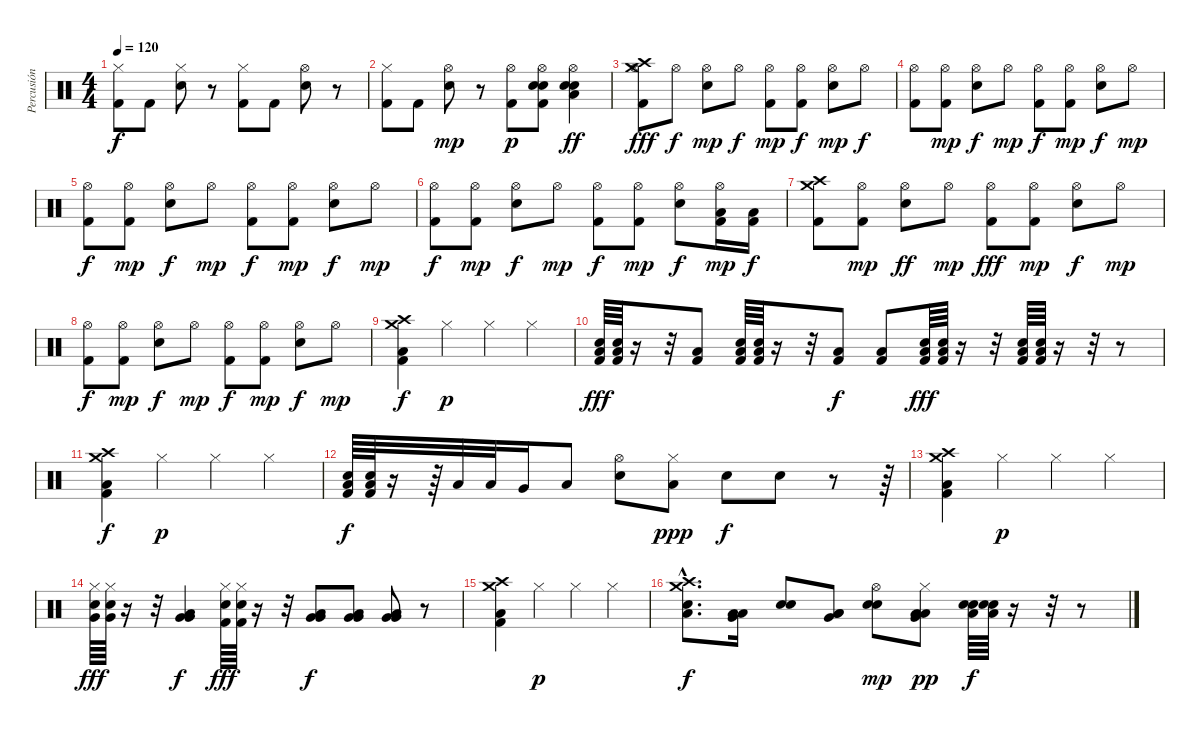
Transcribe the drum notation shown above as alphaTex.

\track ("Percusión" "Percusión") {instrument percussion}
\staff {score}
\articulation defaults
\ts (4 4)
\tempo 120
\clef neutral
\ks c
("Hi-Hat (closed)" "Kick (hit) 2").8{dy f} "Kick (hit) 2".8 ("Electric Snare (hit)" "Hi-Hat (closed)").8 r.8 ("Hi-Hat (closed)" "Kick (hit) 2").8 "Kick (hit) 2".8 ("Electric Snare (hit)" "Hi-Hat (open)").8 r.8 |
("Hi-Hat (closed)" "Kick (hit) 2").8 "Kick (hit) 2".8 ("Electric Snare (hit)" "Hi-Hat (open)").8{dy mp} r.8 ("Hi-Hat (open)" "Kick (hit) 2").8{dy p} ("Electric Snare (hit)" "Snare (hit) 2" "Hi-Hat (open)" "Kick (hit) 2").8 ("Electric Snare (hit)" "Snare (hit) 2" "Hi-Hat (open)" "Low Tom (hit)").4{dy ff} |
("Crash high (hit)" "Crash medium (hit)" "Hi-Hat (open)" "Kick (hit) 2").8{dy fff} "Hi-Hat (open)".8{dy f} ("Electric Snare (hit)" "Hi-Hat (open)").8{dy mp} "Hi-Hat (open)".8{dy f} ("Hi-Hat (open)" "Kick (hit) 2").8{dy mp} ("Hi-Hat (open)" "Kick (hit) 2").8{dy f} ("Electric Snare (hit)" "Hi-Hat (open)").8{dy mp} "Hi-Hat (open)".8{dy f} |
("Hi-Hat (open)" "Kick (hit) 2").8 ("Hi-Hat (open)" "Kick (hit) 2").8{dy mp} ("Electric Snare (hit)" "Hi-Hat (open)").8{dy f} "Hi-Hat (open)".8{dy mp} ("Hi-Hat (open)" "Kick (hit) 2").8{dy f} ("Hi-Hat (open)" "Kick (hit) 2").8{dy mp} ("Electric Snare (hit)" "Hi-Hat (open)").8{dy f} "Hi-Hat (open)".8{dy mp} |
("Hi-Hat (open)" "Kick (hit) 2").8{dy f} ("Hi-Hat (open)" "Kick (hit) 2").8{dy mp} ("Electric Snare (hit)" "Hi-Hat (open)").8{dy f} "Hi-Hat (open)".8{dy mp} ("Hi-Hat (open)" "Kick (hit) 2").8{dy f} ("Hi-Hat (open)" "Kick (hit) 2").8{dy mp} ("Electric Snare (hit)" "Hi-Hat (open)").8{dy f} "Hi-Hat (open)".8{dy mp} |
("Hi-Hat (open)" "Kick (hit) 2").8{dy f} ("Hi-Hat (open)" "Kick (hit) 2").8{dy mp} ("Electric Snare (hit)" "Hi-Hat (open)").8{dy f} "Hi-Hat (open)".8{dy mp} ("Hi-Hat (open)" "Kick (hit) 2").8{dy f} ("Hi-Hat (open)" "Kick (hit) 2").8{dy mp} ("Electric Snare (hit)" "Hi-Hat (open)").8{dy f} ("Hi-Hat (open)" "Low Tom (hit)" "Kick (hit) 2").16{dy mp} ("Low Tom (hit)" "Kick (hit) 2").16{dy f} |
("Crash medium (hit)" "Crash high (hit)" "Kick (hit) 2").8 ("Hi-Hat (open)" "Kick (hit) 2").8{dy mp} ("Electric Snare (hit)" "Hi-Hat (open)").8{dy ff} "Hi-Hat (open)".8{dy mp} ("Hi-Hat (open)" "Kick (hit) 2").8{dy fff} ("Hi-Hat (open)" "Kick (hit) 2").8{dy mp} ("Electric Snare (hit)" "Hi-Hat (open)").8{dy f} "Hi-Hat (open)".8{dy mp} |
("Hi-Hat (open)" "Kick (hit) 2").8{dy f} ("Hi-Hat (open)" "Kick (hit) 2").8{dy mp} ("Electric Snare (hit)" "Hi-Hat (open)").8{dy f} "Hi-Hat (open)".8{dy mp} ("Hi-Hat (open)" "Kick (hit) 2").8{dy f} ("Hi-Hat (open)" "Kick (hit) 2").8{dy mp} ("Electric Snare (hit)" "Hi-Hat (open)").8{dy f} "Hi-Hat (open)".8{dy mp} |
("Crash high (hit)" "Crash medium (hit)" "Low Tom (hit)" "Kick (hit) 2").4{dy f} "Hi-Hat (closed)".4{dy p} "Hi-Hat (closed)".4 "Hi-Hat (closed)".4 |
("Electric Snare (hit)" "Low Tom (hit)" "Kick (hit) 2").64{dy fff} ("Electric Snare (hit)" "Low Tom (hit)" "Kick (hit) 2").64 r.16 r.32 ("Low Tom (hit)" "Kick (hit) 2").8 ("Electric Snare (hit)" "Low Tom (hit)" "Kick (hit) 2").64 ("Electric Snare (hit)" "Low Tom (hit)" "Kick (hit) 2").64 r.16 r.32 ("Low Tom (hit)" "Kick (hit) 2").8{dy f} ("Low Tom (hit)" "Kick (hit) 2").8 ("Electric Snare (hit)" "Low Tom (hit)" "Kick (hit) 2").64{dy fff} ("Electric Snare (hit)" "Low Tom (hit)" "Kick (hit) 2").64 r.16 r.32 ("Electric Snare (hit)" "Low Tom (hit)" "Kick (hit) 2").64 ("Electric Snare (hit)" "Low Tom (hit)" "Kick (hit) 2").64 r.16 r.32 r.8 |
("Crash high (hit)" "Crash medium (hit)" "Low Tom (hit)" "Kick (hit) 2").4{dy f} "Hi-Hat (closed)".4{dy p} "Hi-Hat (closed)".4 "Hi-Hat (closed)".4 |
("Electric Snare (hit)" "Low Tom (hit)" "Kick (hit) 2").64{dy f} ("Electric Snare (hit)" "Low Tom (hit)" "Kick (hit) 2").64 r.16 r.64 "Low Tom (hit)".32 "Low Tom (hit)".32 "Very Low Tom (hit)".16 "Low Floor Tom (hit)".8 ("Hi-Hat (open)" "Electric Snare (hit)").8 ("Low Tom (hit)" "Hi-Hat (closed)").8{dy ppp} "Electric Snare (hit)".8{dy f} "Electric Snare (hit)".8 r.8 r.64 |
("Crash high (hit)" "Crash medium (hit)" "Low Tom (hit)" "Kick (hit) 2").4 "Hi-Hat (closed)".4{dy p} "Hi-Hat (closed)".4 "Hi-Hat (closed)".4 |
("Electric Snare (hit)" "Hi-Hat (closed)" "Very Low Tom (hit)").64{dy fff} ("Electric Snare (hit)" "Hi-Hat (closed)" "Very Low Tom (hit)").64 r.16 r.32 ("Low Tom (hit)" "Very Low Tom (hit)" "Very Low Tom (hit)").4{dy f} ("Electric Snare (hit)" "Hi-Hat (closed)" "Kick (hit) 2").64{dy fff} ("Electric Snare (hit)" "Hi-Hat (closed)" "Kick (hit) 2").64 r.16 r.32 ("Low Tom (hit)" "Very Low Tom (hit)" "Very Low Tom (hit)").8{dy f} ("Low Tom (hit)" "Very Low Tom (hit)" "Very Low Tom (hit)").8 ("Low Tom (hit)" "Very Low Tom (hit)" "Very Low Tom (hit)").8 r.8 |
("Crash high (hit)" "Crash medium (hit)" "Low Tom (hit)" "Kick (hit) 2").4 "Hi-Hat (closed)".4{dy p} "Hi-Hat (closed)".4 "Hi-Hat (closed)".4 |
("Electric Snare (hit)"{hac} "Crash high (hit)"{hac} "Crash medium (hit)"{hac} "Low Tom (hit)"{hac}).8{d dy f} ("Low Tom (hit)" "Low Tom (hit)" "Very Low Tom (hit)").16 ("Electric Snare (hit)" "Electric Snare (hit)").8 ("Low Tom (hit)" "Low Tom (hit)" "Very Low Tom (hit)").8 ("Electric Snare (hit)" "Electric Snare (hit)" "Hi-Hat (open)").8{dy mp} ("Low Tom (hit)" "Very Low Tom (hit)" "Low Tom (hit)" "Hi-Hat (closed)").8{dy pp} ("Low Tom (hit)" "Electric Snare (hit)" "Electric Snare (hit)").64{dy f} ("Low Tom (hit)" "Electric Snare (hit)" "Electric Snare (hit)").64 r.16 r.32 r.8
